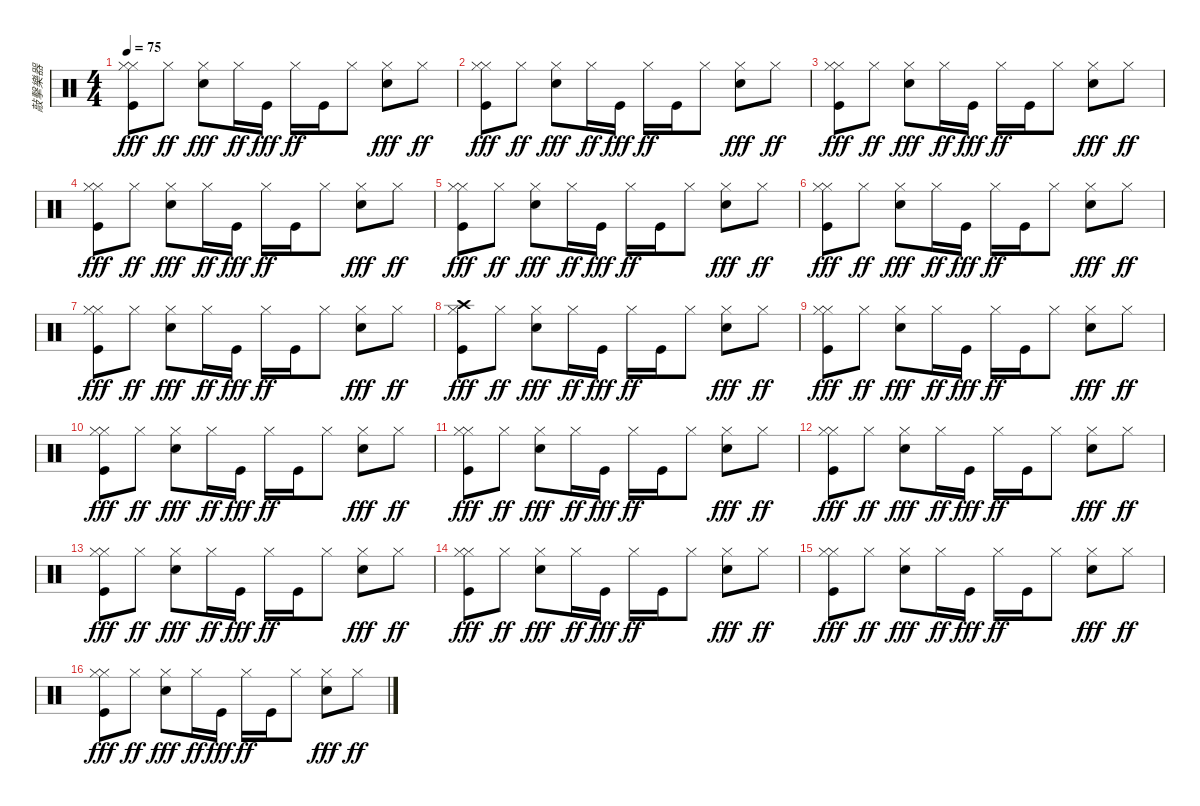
\track ("敲擊樂器" "敲擊樂器") {instrument percussion}
\staff {score}
\articulation defaults
\ts (4 4)
\tempo 75
\clef neutral
\ks c
("Hi-Hat (closed)" "Hi-Hat (closed)" "Kick (hit)").8{dy fff} "Hi-Hat (closed)".8{dy ff} ("Hi-Hat (closed)" "Snare (hit) 2").8{dy fff} "Hi-Hat (closed)".16{dy ff} "Kick (hit)".16{dy fff} "Hi-Hat (closed)".16{dy ff} "Kick (hit)".16 "Hi-Hat (closed)".8 ("Hi-Hat (closed)" "Snare (hit) 2").8{dy fff} "Hi-Hat (closed)".8{dy ff} |
("Hi-Hat (closed)" "Hi-Hat (closed)" "Kick (hit)").8{dy fff} "Hi-Hat (closed)".8{dy ff} ("Hi-Hat (closed)" "Snare (hit) 2").8{dy fff} "Hi-Hat (closed)".16{dy ff} "Kick (hit)".16{dy fff} "Hi-Hat (closed)".16{dy ff} "Kick (hit)".16 "Hi-Hat (closed)".8 ("Hi-Hat (closed)" "Snare (hit) 2").8{dy fff} "Hi-Hat (closed)".8{dy ff} |
("Hi-Hat (closed)" "Hi-Hat (closed)" "Kick (hit)").8{dy fff} "Hi-Hat (closed)".8{dy ff} ("Hi-Hat (closed)" "Snare (hit) 2").8{dy fff} "Hi-Hat (closed)".16{dy ff} "Kick (hit)".16{dy fff} "Hi-Hat (closed)".16{dy ff} "Kick (hit)".16 "Hi-Hat (closed)".8 ("Hi-Hat (closed)" "Snare (hit) 2").8{dy fff} "Hi-Hat (closed)".8{dy ff} |
("Hi-Hat (closed)" "Hi-Hat (closed)" "Kick (hit)").8{dy fff} "Hi-Hat (closed)".8{dy ff} ("Hi-Hat (closed)" "Snare (hit) 2").8{dy fff} "Hi-Hat (closed)".16{dy ff} "Kick (hit)".16{dy fff} "Hi-Hat (closed)".16{dy ff} "Kick (hit)".16 "Hi-Hat (closed)".8 ("Hi-Hat (closed)" "Snare (hit) 2").8{dy fff} "Hi-Hat (closed)".8{dy ff} |
("Hi-Hat (closed)" "Hi-Hat (closed)" "Kick (hit)").8{dy fff} "Hi-Hat (closed)".8{dy ff} ("Hi-Hat (closed)" "Snare (hit) 2").8{dy fff} "Hi-Hat (closed)".16{dy ff} "Kick (hit)".16{dy fff} "Hi-Hat (closed)".16{dy ff} "Kick (hit)".16 "Hi-Hat (closed)".8 ("Hi-Hat (closed)" "Snare (hit) 2").8{dy fff} "Hi-Hat (closed)".8{dy ff} |
("Hi-Hat (closed)" "Hi-Hat (closed)" "Kick (hit)").8{dy fff} "Hi-Hat (closed)".8{dy ff} ("Hi-Hat (closed)" "Snare (hit) 2").8{dy fff} "Hi-Hat (closed)".16{dy ff} "Kick (hit)".16{dy fff} "Hi-Hat (closed)".16{dy ff} "Kick (hit)".16 "Hi-Hat (closed)".8 ("Hi-Hat (closed)" "Snare (hit) 2").8{dy fff} "Hi-Hat (closed)".8{dy ff} |
("Hi-Hat (closed)" "Hi-Hat (closed)" "Kick (hit)").8{dy fff} "Hi-Hat (closed)".8{dy ff} ("Hi-Hat (closed)" "Snare (hit) 2").8{dy fff} "Hi-Hat (closed)".16{dy ff} "Kick (hit)".16{dy fff} "Hi-Hat (closed)".16{dy ff} "Kick (hit)".16 "Hi-Hat (closed)".8 ("Hi-Hat (closed)" "Snare (hit) 2").8{dy fff} "Hi-Hat (closed)".8{dy ff} |
("Hi-Hat (closed)" "Crash high (hit)" "Kick (hit)").8{dy fff} "Hi-Hat (closed)".8{dy ff} ("Hi-Hat (closed)" "Snare (hit) 2").8{dy fff} "Hi-Hat (closed)".16{dy ff} "Kick (hit)".16{dy fff} "Hi-Hat (closed)".16{dy ff} "Kick (hit)".16 "Hi-Hat (closed)".8 ("Hi-Hat (closed)" "Snare (hit) 2").8{dy fff} "Hi-Hat (closed)".8{dy ff} |
("Hi-Hat (closed)" "Hi-Hat (closed)" "Kick (hit)").8{dy fff} "Hi-Hat (closed)".8{dy ff} ("Hi-Hat (closed)" "Snare (hit) 2").8{dy fff} "Hi-Hat (closed)".16{dy ff} "Kick (hit)".16{dy fff} "Hi-Hat (closed)".16{dy ff} "Kick (hit)".16 "Hi-Hat (closed)".8 ("Hi-Hat (closed)" "Snare (hit) 2").8{dy fff} "Hi-Hat (closed)".8{dy ff} |
("Hi-Hat (closed)" "Hi-Hat (closed)" "Kick (hit)").8{dy fff} "Hi-Hat (closed)".8{dy ff} ("Hi-Hat (closed)" "Snare (hit) 2").8{dy fff} "Hi-Hat (closed)".16{dy ff} "Kick (hit)".16{dy fff} "Hi-Hat (closed)".16{dy ff} "Kick (hit)".16 "Hi-Hat (closed)".8 ("Hi-Hat (closed)" "Snare (hit) 2").8{dy fff} "Hi-Hat (closed)".8{dy ff} |
("Hi-Hat (closed)" "Hi-Hat (closed)" "Kick (hit)").8{dy fff} "Hi-Hat (closed)".8{dy ff} ("Hi-Hat (closed)" "Snare (hit) 2").8{dy fff} "Hi-Hat (closed)".16{dy ff} "Kick (hit)".16{dy fff} "Hi-Hat (closed)".16{dy ff} "Kick (hit)".16 "Hi-Hat (closed)".8 ("Hi-Hat (closed)" "Snare (hit) 2").8{dy fff} "Hi-Hat (closed)".8{dy ff} |
("Hi-Hat (closed)" "Hi-Hat (closed)" "Kick (hit)").8{dy fff} "Hi-Hat (closed)".8{dy ff} ("Hi-Hat (closed)" "Snare (hit) 2").8{dy fff} "Hi-Hat (closed)".16{dy ff} "Kick (hit)".16{dy fff} "Hi-Hat (closed)".16{dy ff} "Kick (hit)".16 "Hi-Hat (closed)".8 ("Hi-Hat (closed)" "Snare (hit) 2").8{dy fff} "Hi-Hat (closed)".8{dy ff} |
("Hi-Hat (closed)" "Hi-Hat (closed)" "Kick (hit)").8{dy fff} "Hi-Hat (closed)".8{dy ff} ("Hi-Hat (closed)" "Snare (hit) 2").8{dy fff} "Hi-Hat (closed)".16{dy ff} "Kick (hit)".16{dy fff} "Hi-Hat (closed)".16{dy ff} "Kick (hit)".16 "Hi-Hat (closed)".8 ("Hi-Hat (closed)" "Snare (hit) 2").8{dy fff} "Hi-Hat (closed)".8{dy ff} |
("Hi-Hat (closed)" "Hi-Hat (closed)" "Kick (hit)").8{dy fff} "Hi-Hat (closed)".8{dy ff} ("Hi-Hat (closed)" "Snare (hit) 2").8{dy fff} "Hi-Hat (closed)".16{dy ff} "Kick (hit)".16{dy fff} "Hi-Hat (closed)".16{dy ff} "Kick (hit)".16 "Hi-Hat (closed)".8 ("Hi-Hat (closed)" "Snare (hit) 2").8{dy fff} "Hi-Hat (closed)".8{dy ff} |
("Hi-Hat (closed)" "Hi-Hat (closed)" "Kick (hit)").8{dy fff} "Hi-Hat (closed)".8{dy ff} ("Hi-Hat (closed)" "Snare (hit) 2").8{dy fff} "Hi-Hat (closed)".16{dy ff} "Kick (hit)".16{dy fff} "Hi-Hat (closed)".16{dy ff} "Kick (hit)".16 "Hi-Hat (closed)".8 ("Hi-Hat (closed)" "Snare (hit) 2").8{dy fff} "Hi-Hat (closed)".8{dy ff} |
("Hi-Hat (closed)" "Hi-Hat (closed)" "Kick (hit)").8{dy fff} "Hi-Hat (closed)".8{dy ff} ("Hi-Hat (closed)" "Snare (hit) 2").8{dy fff} "Hi-Hat (closed)".16{dy ff} "Kick (hit)".16{dy fff} "Hi-Hat (closed)".16{dy ff} "Kick (hit)".16 "Hi-Hat (closed)".8 ("Hi-Hat (closed)" "Snare (hit) 2").8{dy fff} "Hi-Hat (closed)".8{dy ff}
